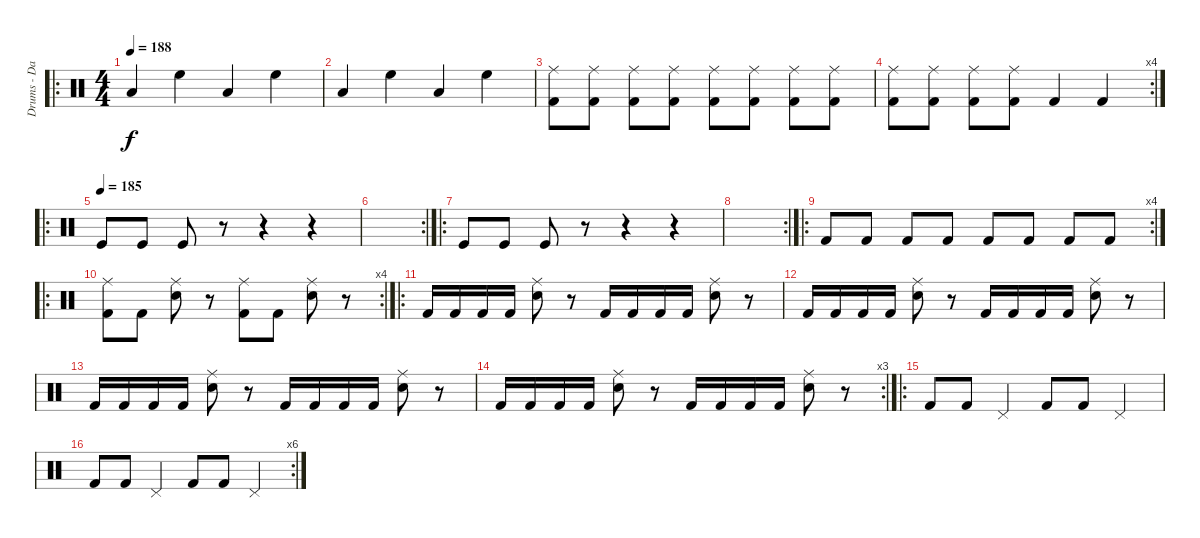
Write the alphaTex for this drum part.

\track ("Drums - Dave Lombardo" "Drums - Da") {instrument percussion}
\staff {score}
\articulation defaults
\ro
\ts (4 4)
\tempo 188
\clef neutral
\ks c "Low Tom (hit)".4{dy f} "High Floor Tom (hit)".4 "Low Tom (hit)".4 "High Floor Tom (hit)".4
|
"Low Tom (hit)".4 "High Floor Tom (hit)".4 "Low Tom (hit)".4 "High Floor Tom (hit)".4 |
("Ride (middle)" "Kick (hit) 2").8 ("Ride (middle)" "Kick (hit) 2").8 ("Ride (middle)" "Kick (hit) 2").8 ("Ride (middle)" "Kick (hit) 2").8 ("Ride (middle)" "Kick (hit) 2").8 ("Ride (middle)" "Kick (hit) 2").8 ("Ride (middle)" "Kick (hit) 2").8 ("Ride (middle)" "Kick (hit) 2").8 |
\rc 4
("Ride (middle)" "Kick (hit) 2").8 ("Ride (middle)" "Kick (hit) 2").8 ("Ride (middle)" "Kick (hit) 2").8 ("Ride (middle)" "Kick (hit) 2").8 "Kick (hit) 2".4 "Kick (hit) 2".4 |
\ro
\tempo (185)
"Kick (hit)".8 "Kick (hit)".8 "Kick (hit)".8 r.8 r.4 r.4 |
\rc 2
|
\ro "Kick (hit)".8 "Kick (hit)".8 "Kick (hit)".8
r.8 r.4 r.4 |
\rc 2
|
\ro
\rc 4 "Kick (hit) 2".8 "Kick (hit) 2".8 "Kick (hit) 2".8 "Kick (hit) 2".8 "Kick (hit) 2".8 "Kick (hit) 2".8 "Kick (hit) 2".8 "Kick (hit) 2".8
|
\ro
\rc 4
("Ride (middle)" "Kick (hit) 2").8 "Kick (hit) 2".8 ("Ride (middle)" "Electric Snare (hit)").8 r.8 ("Ride (middle)" "Kick (hit) 2").8 "Kick (hit) 2".8 ("Ride (middle)" "Electric Snare (hit)").8 r.8 |
\ro "Kick (hit) 2".16 "Kick (hit) 2".16 "Kick (hit) 2".16 "Kick (hit) 2".16
("Ride (middle)" "Electric Snare (hit)").8 r.8 "Kick (hit) 2".16 "Kick (hit) 2".16 "Kick (hit) 2".16 "Kick (hit) 2".16 ("Ride (middle)" "Electric Snare (hit)").8 r.8 |
"Kick (hit) 2".16 "Kick (hit) 2".16 "Kick (hit) 2".16 "Kick (hit) 2".16 ("Ride (middle)" "Electric Snare (hit)").8 r.8 "Kick (hit) 2".16 "Kick (hit) 2".16 "Kick (hit) 2".16 "Kick (hit) 2".16 ("Ride (middle)" "Electric Snare (hit)").8 r.8 |
"Kick (hit) 2".16 "Kick (hit) 2".16 "Kick (hit) 2".16 "Kick (hit) 2".16 ("Ride (middle)" "Electric Snare (hit)").8 r.8 "Kick (hit) 2".16 "Kick (hit) 2".16 "Kick (hit) 2".16 "Kick (hit) 2".16 ("Ride (middle)" "Electric Snare (hit)").8 r.8 |
\rc 3 "Kick (hit) 2".16 "Kick (hit) 2".16 "Kick (hit) 2".16 "Kick (hit) 2".16
("Ride (middle)" "Electric Snare (hit)").8 r.8 "Kick (hit) 2".16 "Kick (hit) 2".16 "Kick (hit) 2".16 "Kick (hit) 2".16 ("Ride (middle)" "Electric Snare (hit)").8 r.8 |
\ro "Kick (hit) 2".8 "Kick (hit) 2".8 "Pedal Hi-Hat (hit)".4 "Kick (hit) 2".8 "Kick (hit) 2".8 "Pedal Hi-Hat (hit)".4
|
\rc 6 "Kick (hit) 2".8 "Kick (hit) 2".8 "Pedal Hi-Hat (hit)".4 "Kick (hit) 2".8 "Kick (hit) 2".8 "Pedal Hi-Hat (hit)".4
